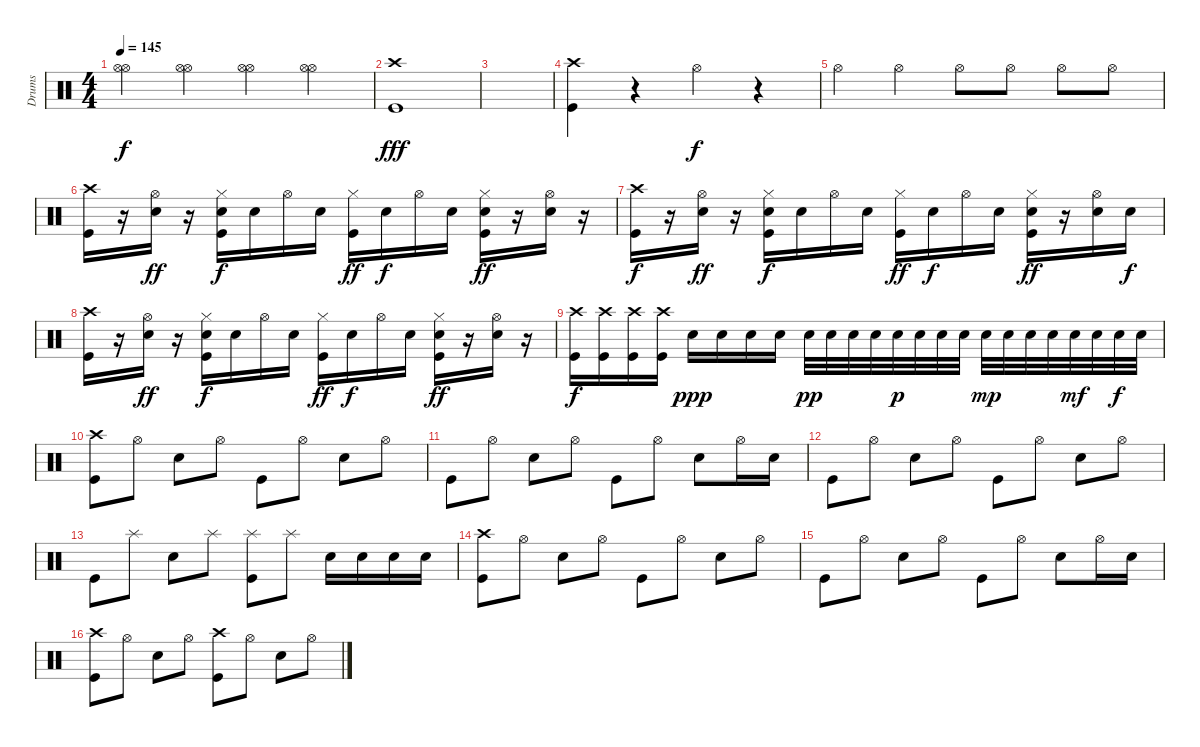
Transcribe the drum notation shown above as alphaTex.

\track ("Drums" "Drums") {instrument percussion}
\staff {score}
\articulation defaults
\ts (4 4)
\tempo 145
\clef neutral
\ks c
("Hi-Hat (open)" "Hi-Hat (open)").4{dy f} ("Hi-Hat (open)" "Hi-Hat (open)").4 ("Hi-Hat (open)" "Hi-Hat (open)").4 ("Hi-Hat (open)" "Hi-Hat (open)").4 |
("Crash high (hit)" "Kick (hit)").1{dy fff} |
|
("Crash high (hit)" "Kick (hit)").4 r.4 "Hi-Hat (open)".4{dy f} r.4 |
"Hi-Hat (open)".4 "Hi-Hat (open)".4 "Hi-Hat (open)".8 "Hi-Hat (open)".8 "Hi-Hat (open)".8 "Hi-Hat (open)".8 |
("Crash high (hit)" "Kick (hit)").16 r.16 ("Hi-Hat (open)" "Metronome (bell)").16{dy ff} r.16 ("Hi-Hat (closed)" "Electric Snare (hit)" "Kick (hit)").16{dy f} "Metronome (bell)".16 "Hi-Hat (open)".16 "Metronome (bell)".16 ("Hi-Hat (closed)" "Kick (hit)").16{dy ff} "Metronome (bell)".16{dy f} "Hi-Hat (open)".16 "Metronome (bell)".16 ("Hi-Hat (closed)" "Electric Snare (hit)" "Kick (hit)").16{dy ff} r.16 ("Hi-Hat (open)" "Metronome (bell)").16 r.16 |
("Crash high (hit)" "Kick (hit)").16{dy f} r.16 ("Hi-Hat (open)" "Metronome (bell)").16{dy ff} r.16 ("Hi-Hat (closed)" "Electric Snare (hit)" "Kick (hit)").16{dy f} "Metronome (bell)".16 "Hi-Hat (open)".16 "Metronome (bell)".16 ("Hi-Hat (closed)" "Kick (hit)").16{dy ff} "Metronome (bell)".16{dy f} "Hi-Hat (open)".16 "Metronome (bell)".16 ("Hi-Hat (closed)" "Electric Snare (hit)" "Kick (hit)").16{dy ff} r.16 ("Hi-Hat (open)" "Metronome (bell)").16 "Metronome (bell)".16{dy f} |
("Crash high (hit)" "Kick (hit)").16 r.16 ("Hi-Hat (open)" "Metronome (bell)").16{dy ff} r.16 ("Hi-Hat (closed)" "Electric Snare (hit)" "Kick (hit)").16{dy f} "Metronome (bell)".16 "Hi-Hat (open)".16 "Metronome (bell)".16 ("Hi-Hat (closed)" "Kick (hit)").16{dy ff} "Metronome (bell)".16{dy f} "Hi-Hat (open)".16 "Metronome (bell)".16 ("Hi-Hat (closed)" "Electric Snare (hit)" "Kick (hit)").16{dy ff} r.16 ("Hi-Hat (open)" "Metronome (bell)").16 r.16 |
("Crash high (hit)" "Kick (hit)").16{dy f} ("Crash high (hit)" "Kick (hit)").16 ("Crash high (hit)" "Kick (hit)").16 ("Crash high (hit)" "Kick (hit)").16 "Electric Snare (hit)".16{dy ppp} "Electric Snare (hit)".16 "Electric Snare (hit)".16 "Electric Snare (hit)".16 "Electric Snare (hit)".32{dy pp} "Electric Snare (hit)".32 "Electric Snare (hit)".32 "Electric Snare (hit)".32 "Electric Snare (hit)".32{dy p} "Electric Snare (hit)".32 "Electric Snare (hit)".32 "Electric Snare (hit)".32 "Electric Snare (hit)".32{dy mp} "Electric Snare (hit)".32 "Electric Snare (hit)".32 "Electric Snare (hit)".32 "Electric Snare (hit)".32{dy mf} "Electric Snare (hit)".32 "Electric Snare (hit)".32{dy f} "Electric Snare (hit)".32 |
("Crash high (hit)" "Kick (hit)").8 "Hi-Hat (open)".8 "Electric Snare (hit)".8 "Hi-Hat (open)".8 "Kick (hit)".8 "Hi-Hat (open)".8 "Electric Snare (hit)".8 "Hi-Hat (open)".8 |
"Kick (hit)".8 "Hi-Hat (open)".8 "Electric Snare (hit)".8 "Hi-Hat (open)".8 "Kick (hit)".8 "Hi-Hat (open)".8 "Electric Snare (hit)".8 "Hi-Hat (open)".16 "Electric Snare (hit)".16 |
"Kick (hit)".8 "Hi-Hat (open)".8 "Electric Snare (hit)".8 "Hi-Hat (open)".8 "Kick (hit)".8 "Hi-Hat (open)".8 "Electric Snare (hit)".8 "Hi-Hat (open)".8 |
"Kick (hit)".8 "Splash (hit)".8 "Electric Snare (hit)".8 "Splash (hit)".8 ("Splash (hit)" "Kick (hit)").8 "Splash (hit)".8 "Electric Snare (hit)".16 "Electric Snare (hit)".16 "Electric Snare (hit)".16 "Electric Snare (hit)".16 |
("Crash high (hit)" "Kick (hit)").8 "Hi-Hat (open)".8 "Electric Snare (hit)".8 "Hi-Hat (open)".8 "Kick (hit)".8 "Hi-Hat (open)".8 "Electric Snare (hit)".8 "Hi-Hat (open)".8 |
"Kick (hit)".8 "Hi-Hat (open)".8 "Electric Snare (hit)".8 "Hi-Hat (open)".8 "Kick (hit)".8 "Hi-Hat (open)".8 "Electric Snare (hit)".8 "Hi-Hat (open)".16 "Electric Snare (hit)".16 |
("Crash high (hit)" "Kick (hit)").8 "Hi-Hat (open)".8 "Electric Snare (hit)".8 "Hi-Hat (open)".8 ("Crash high (hit)" "Kick (hit)").8 "Hi-Hat (open)".8 "Electric Snare (hit)".8 "Hi-Hat (open)".8
